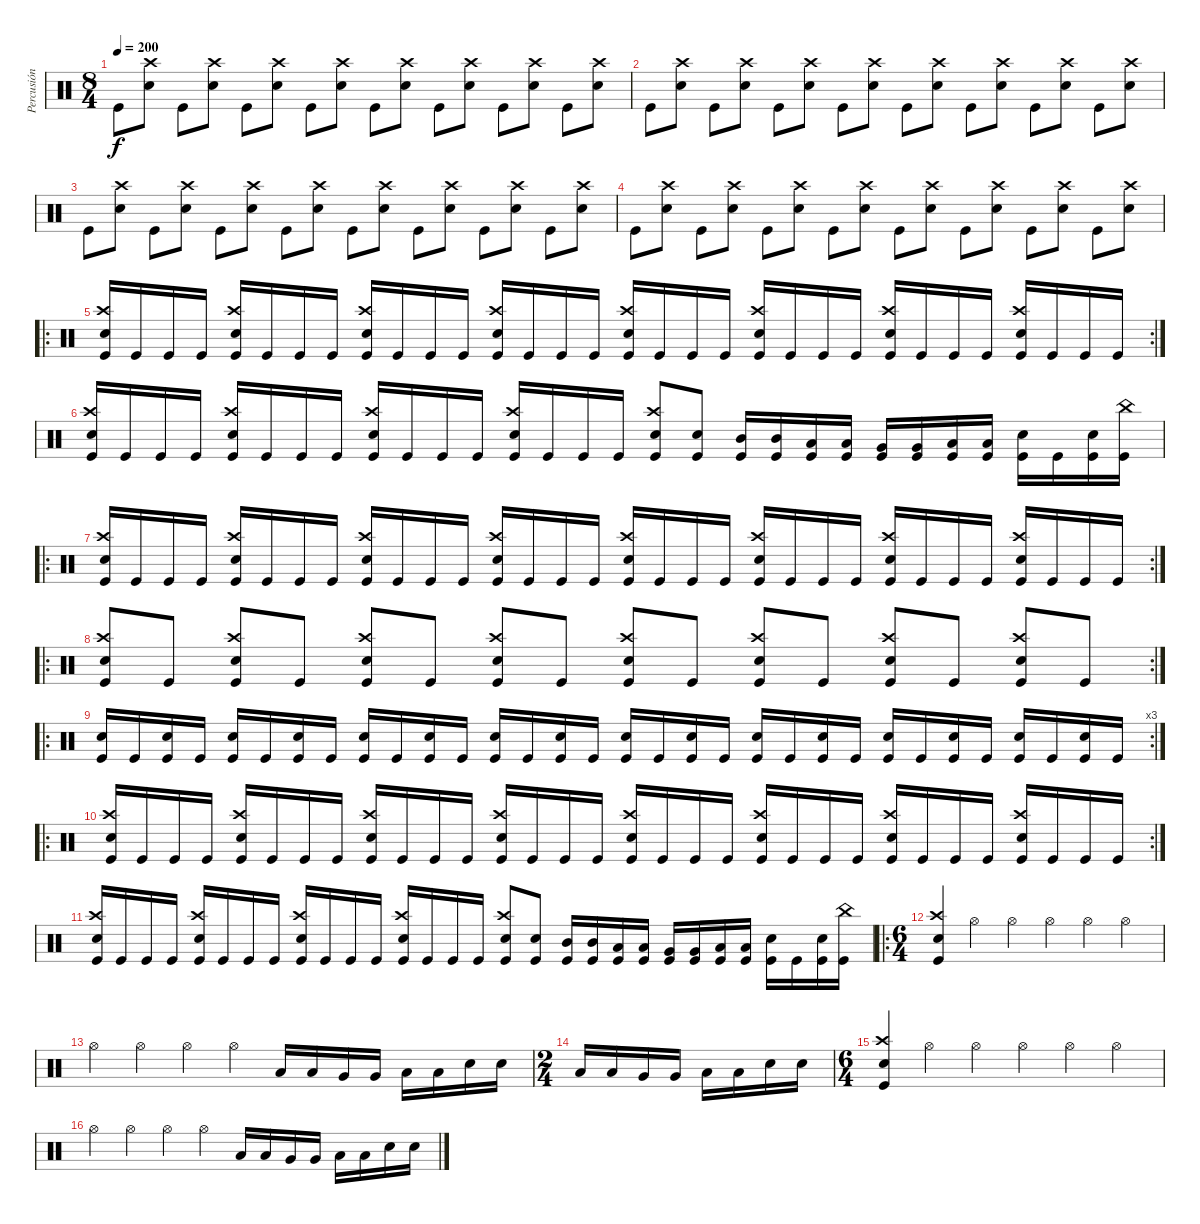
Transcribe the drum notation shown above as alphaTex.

\track ("Percusión" "Percusión") {instrument percussion}
\staff {score}
\articulation defaults
\ts (8 4)
\tempo 200
\clef neutral
\ks c "Kick (hit)".8{dy f}
("Crash high (hit)" "Snare (hit) 2").8 "Kick (hit)".8 ("Crash high (hit)" "Snare (hit) 2").8 "Kick (hit)".8 ("Crash high (hit)" "Snare (hit) 2").8 "Kick (hit)".8 ("Crash high (hit)" "Snare (hit) 2").8 "Kick (hit)".8 ("Crash high (hit)" "Snare (hit) 2").8 "Kick (hit)".8 ("Crash high (hit)" "Snare (hit) 2").8 "Kick (hit)".8 ("Crash high (hit)" "Snare (hit) 2").8 "Kick (hit)".8 ("Crash high (hit)" "Snare (hit) 2").8 |
"Kick (hit)".8 ("Crash high (hit)" "Snare (hit) 2").8 "Kick (hit)".8 ("Crash high (hit)" "Snare (hit) 2").8 "Kick (hit)".8 ("Crash high (hit)" "Snare (hit) 2").8 "Kick (hit)".8 ("Crash high (hit)" "Snare (hit) 2").8 "Kick (hit)".8 ("Crash high (hit)" "Snare (hit) 2").8 "Kick (hit)".8 ("Crash high (hit)" "Snare (hit) 2").8 "Kick (hit)".8 ("Crash high (hit)" "Snare (hit) 2").8 "Kick (hit)".8 ("Crash high (hit)" "Snare (hit) 2").8 |
"Kick (hit)".8 ("Crash high (hit)" "Snare (hit) 2").8 "Kick (hit)".8 ("Crash high (hit)" "Snare (hit) 2").8 "Kick (hit)".8 ("Crash high (hit)" "Snare (hit) 2").8 "Kick (hit)".8 ("Crash high (hit)" "Snare (hit) 2").8 "Kick (hit)".8 ("Crash high (hit)" "Snare (hit) 2").8 "Kick (hit)".8 ("Crash high (hit)" "Snare (hit) 2").8 "Kick (hit)".8 ("Crash high (hit)" "Snare (hit) 2").8 "Kick (hit)".8 ("Crash high (hit)" "Snare (hit) 2").8 |
"Kick (hit)".8 ("Crash high (hit)" "Snare (hit) 2").8 "Kick (hit)".8 ("Crash high (hit)" "Snare (hit) 2").8 "Kick (hit)".8 ("Crash high (hit)" "Snare (hit) 2").8 "Kick (hit)".8 ("Crash high (hit)" "Snare (hit) 2").8 "Kick (hit)".8 ("Crash high (hit)" "Snare (hit) 2").8 "Kick (hit)".8 ("Crash high (hit)" "Snare (hit) 2").8 "Kick (hit)".8 ("Crash high (hit)" "Snare (hit) 2").8 "Kick (hit)".8 ("Crash high (hit)" "Snare (hit) 2").8 |
\ro
\rc 2
("Crash high (hit)" "Snare (hit) 2" "Kick (hit)").16 "Kick (hit)".16 "Kick (hit)".16 "Kick (hit)".16 ("Crash high (hit)" "Snare (hit) 2" "Kick (hit)").16 "Kick (hit)".16 "Kick (hit)".16 "Kick (hit)".16 ("Crash high (hit)" "Snare (hit) 2" "Kick (hit)").16 "Kick (hit)".16 "Kick (hit)".16 "Kick (hit)".16 ("Crash high (hit)" "Snare (hit) 2" "Kick (hit)").16 "Kick (hit)".16 "Kick (hit)".16 "Kick (hit)".16 ("Crash high (hit)" "Snare (hit) 2" "Kick (hit)").16 "Kick (hit)".16 "Kick (hit)".16 "Kick (hit)".16 ("Crash high (hit)" "Snare (hit) 2" "Kick (hit)").16 "Kick (hit)".16 "Kick (hit)".16 "Kick (hit)".16 ("Crash high (hit)" "Snare (hit) 2" "Kick (hit)").16 "Kick (hit)".16 "Kick (hit)".16 "Kick (hit)".16 ("Crash high (hit)" "Snare (hit) 2" "Kick (hit)").16 "Kick (hit)".16 "Kick (hit)".16 "Kick (hit)".16 |
("Crash high (hit)" "Snare (hit) 2" "Kick (hit)").16 "Kick (hit)".16 "Kick (hit)".16 "Kick (hit)".16 ("Crash high (hit)" "Snare (hit) 2" "Kick (hit)").16 "Kick (hit)".16 "Kick (hit)".16 "Kick (hit)".16 ("Crash high (hit)" "Snare (hit) 2" "Kick (hit)").16 "Kick (hit)".16 "Kick (hit)".16 "Kick (hit)".16 ("Crash high (hit)" "Snare (hit) 2" "Kick (hit)").16 "Kick (hit)".16 "Kick (hit)".16 "Kick (hit)".16 ("Crash high (hit)" "Snare (hit) 2" "Kick (hit)").8 ("Snare (hit) 2" "Kick (hit)").8 ("Mid Tom (hit)" "Kick (hit)").16 ("Mid Tom (hit)" "Kick (hit)").16 ("Low Tom (hit)" "Kick (hit)").16 ("Low Tom (hit)" "Kick (hit)").16 ("Very Low Tom (hit)" "Kick (hit)").16 ("Very Low Tom (hit)" "Kick (hit)").16 ("Low Floor Tom (hit)" "Kick (hit)").16 ("Low Floor Tom (hit)" "Kick (hit)").16 ("Snare (hit) 2" "Kick (hit)").16 "Kick (hit)".16 ("Snare (hit) 2" "Kick (hit)").16 ("China (hit)" "Kick (hit)").16 |
\ro
\rc 2
("Crash high (hit)" "Snare (hit) 2" "Kick (hit)").16 "Kick (hit)".16 "Kick (hit)".16 "Kick (hit)".16 ("Crash high (hit)" "Snare (hit) 2" "Kick (hit)").16 "Kick (hit)".16 "Kick (hit)".16 "Kick (hit)".16 ("Crash high (hit)" "Snare (hit) 2" "Kick (hit)").16 "Kick (hit)".16 "Kick (hit)".16 "Kick (hit)".16 ("Crash high (hit)" "Snare (hit) 2" "Kick (hit)").16 "Kick (hit)".16 "Kick (hit)".16 "Kick (hit)".16 ("Crash high (hit)" "Snare (hit) 2" "Kick (hit)").16 "Kick (hit)".16 "Kick (hit)".16 "Kick (hit)".16 ("Crash high (hit)" "Snare (hit) 2" "Kick (hit)").16 "Kick (hit)".16 "Kick (hit)".16 "Kick (hit)".16 ("Crash high (hit)" "Snare (hit) 2" "Kick (hit)").16 "Kick (hit)".16 "Kick (hit)".16 "Kick (hit)".16 ("Crash high (hit)" "Snare (hit) 2" "Kick (hit)").16 "Kick (hit)".16 "Kick (hit)".16 "Kick (hit)".16 |
\ro
\rc 2
("Crash high (hit)" "Snare (hit) 2" "Kick (hit)").8 "Kick (hit)".8 ("Crash high (hit)" "Snare (hit) 2" "Kick (hit)").8 "Kick (hit)".8 ("Crash high (hit)" "Snare (hit) 2" "Kick (hit)").8 "Kick (hit)".8 ("Crash high (hit)" "Snare (hit) 2" "Kick (hit)").8 "Kick (hit)".8 ("Crash high (hit)" "Snare (hit) 2" "Kick (hit)").8 "Kick (hit)".8 ("Crash high (hit)" "Snare (hit) 2" "Kick (hit)").8 "Kick (hit)".8 ("Crash high (hit)" "Snare (hit) 2" "Kick (hit)").8 "Kick (hit)".8 ("Crash high (hit)" "Snare (hit) 2" "Kick (hit)").8 "Kick (hit)".8 |
\ro
\rc 3
("Snare (hit) 2" "Kick (hit)").16 "Kick (hit)".16 ("Snare (hit) 2" "Kick (hit)").16 "Kick (hit)".16 ("Snare (hit) 2" "Kick (hit)").16 "Kick (hit)".16 ("Snare (hit) 2" "Kick (hit)").16 "Kick (hit)".16 ("Snare (hit) 2" "Kick (hit)").16 "Kick (hit)".16 ("Snare (hit) 2" "Kick (hit)").16 "Kick (hit)".16 ("Snare (hit) 2" "Kick (hit)").16 "Kick (hit)".16 ("Snare (hit) 2" "Kick (hit)").16 "Kick (hit)".16 ("Snare (hit) 2" "Kick (hit)").16 "Kick (hit)".16 ("Snare (hit) 2" "Kick (hit)").16 "Kick (hit)".16 ("Snare (hit) 2" "Kick (hit)").16 "Kick (hit)".16 ("Snare (hit) 2" "Kick (hit)").16 "Kick (hit)".16 ("Snare (hit) 2" "Kick (hit)").16 "Kick (hit)".16 ("Snare (hit) 2" "Kick (hit)").16 "Kick (hit)".16 ("Snare (hit) 2" "Kick (hit)").16 "Kick (hit)".16 ("Snare (hit) 2" "Kick (hit)").16 "Kick (hit)".16 |
\ro
\rc 2
("Crash high (hit)" "Snare (hit) 2" "Kick (hit)").16 "Kick (hit)".16 "Kick (hit)".16 "Kick (hit)".16 ("Crash high (hit)" "Snare (hit) 2" "Kick (hit)").16 "Kick (hit)".16 "Kick (hit)".16 "Kick (hit)".16 ("Crash high (hit)" "Snare (hit) 2" "Kick (hit)").16 "Kick (hit)".16 "Kick (hit)".16 "Kick (hit)".16 ("Crash high (hit)" "Snare (hit) 2" "Kick (hit)").16 "Kick (hit)".16 "Kick (hit)".16 "Kick (hit)".16 ("Crash high (hit)" "Snare (hit) 2" "Kick (hit)").16 "Kick (hit)".16 "Kick (hit)".16 "Kick (hit)".16 ("Crash high (hit)" "Snare (hit) 2" "Kick (hit)").16 "Kick (hit)".16 "Kick (hit)".16 "Kick (hit)".16 ("Crash high (hit)" "Snare (hit) 2" "Kick (hit)").16 "Kick (hit)".16 "Kick (hit)".16 "Kick (hit)".16 ("Crash high (hit)" "Snare (hit) 2" "Kick (hit)").16 "Kick (hit)".16 "Kick (hit)".16 "Kick (hit)".16 |
("Crash high (hit)" "Snare (hit) 2" "Kick (hit)").16 "Kick (hit)".16 "Kick (hit)".16 "Kick (hit)".16 ("Crash high (hit)" "Snare (hit) 2" "Kick (hit)").16 "Kick (hit)".16 "Kick (hit)".16 "Kick (hit)".16 ("Crash high (hit)" "Snare (hit) 2" "Kick (hit)").16 "Kick (hit)".16 "Kick (hit)".16 "Kick (hit)".16 ("Crash high (hit)" "Snare (hit) 2" "Kick (hit)").16 "Kick (hit)".16 "Kick (hit)".16 "Kick (hit)".16 ("Crash high (hit)" "Snare (hit) 2" "Kick (hit)").8 ("Snare (hit) 2" "Kick (hit)").8 ("Mid Tom (hit)" "Kick (hit)").16 ("Mid Tom (hit)" "Kick (hit)").16 ("Low Tom (hit)" "Kick (hit)").16 ("Low Tom (hit)" "Kick (hit)").16 ("Very Low Tom (hit)" "Kick (hit)").16 ("Very Low Tom (hit)" "Kick (hit)").16 ("Low Floor Tom (hit)" "Kick (hit)").16 ("Low Floor Tom (hit)" "Kick (hit)").16 ("Snare (hit) 2" "Kick (hit)").16 "Kick (hit)".16 ("Snare (hit) 2" "Kick (hit)").16 ("China (hit)" "Kick (hit)").16 |
\ro
\ts (6 4)
("Crash high (hit)" "Snare (hit) 2" "Kick (hit)").4 "Hi-Hat (open)".4 "Hi-Hat (open)".4 "Hi-Hat (open)".4 "Hi-Hat (open)".4 "Hi-Hat (open)".4 |
"Hi-Hat (open)".4 "Hi-Hat (open)".4 "Hi-Hat (open)".4 "Hi-Hat (open)".4 "Low Tom (hit)".16 "Low Tom (hit)".16 "Very Low Tom (hit)".16 "Very Low Tom (hit)".16 "Low Floor Tom (hit)".16 "Low Floor Tom (hit)".16 "Snare (hit) 2".16 "Snare (hit) 2".16 |
\ts (2 4)
"Low Tom (hit)".16 "Low Tom (hit)".16 "Very Low Tom (hit)".16 "Very Low Tom (hit)".16 "Low Floor Tom (hit)".16 "Low Floor Tom (hit)".16 "Snare (hit) 2".16 "Snare (hit) 2".16 |
\ts (6 4)
("Crash high (hit)" "Snare (hit) 2" "Kick (hit)").4 "Hi-Hat (open)".4 "Hi-Hat (open)".4 "Hi-Hat (open)".4 "Hi-Hat (open)".4 "Hi-Hat (open)".4 |
"Hi-Hat (open)".4 "Hi-Hat (open)".4 "Hi-Hat (open)".4 "Hi-Hat (open)".4 "Low Tom (hit)".16 "Low Tom (hit)".16 "Very Low Tom (hit)".16 "Very Low Tom (hit)".16 "Low Floor Tom (hit)".16 "Low Floor Tom (hit)".16 "Snare (hit) 2".16 "Snare (hit) 2".16
